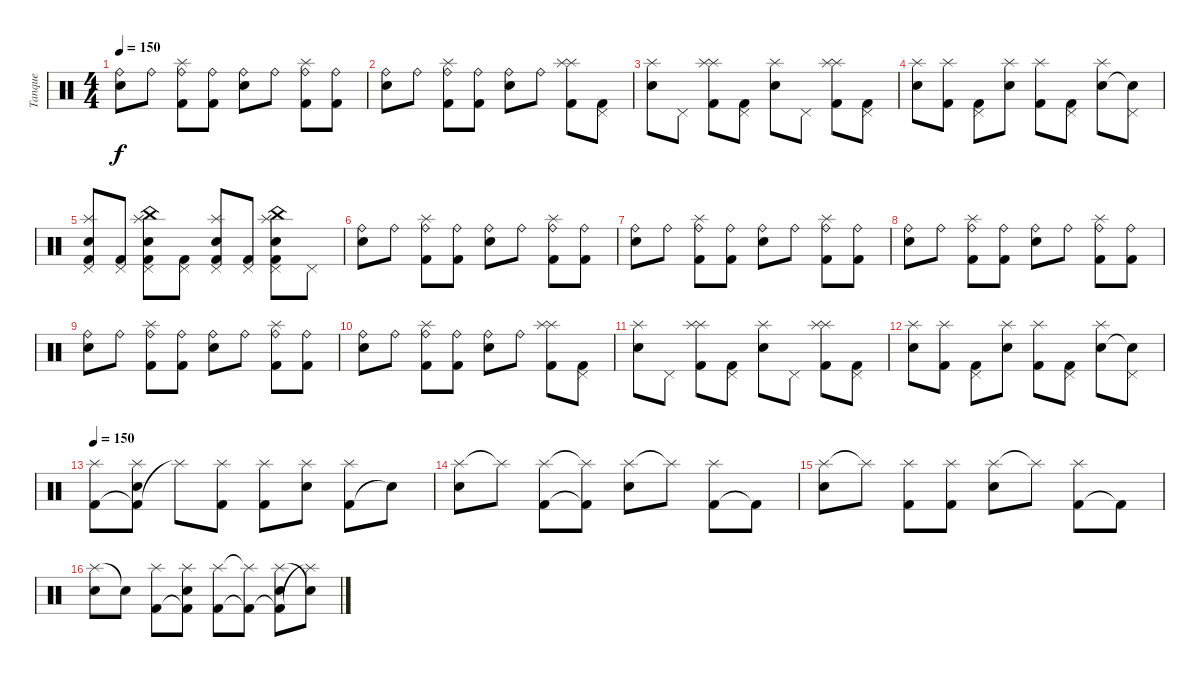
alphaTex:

\track ("Tanque" "Tanque") {instrument percussion}
\staff {score}
\articulation defaults
\ts (4 4)
\tempo 150
\clef neutral
\ks c
("Ride (bell)" "Snare (hit) 2").8{dy f} "Ride (bell)".8 ("Ride (bell)" "Kick (hit) 2" "Splash (hit)").8 ("Ride (bell)" "Kick (hit) 2").8 ("Ride (bell)" "Snare (hit) 2").8 "Ride (bell)".8 ("Ride (bell)" "Kick (hit) 2" "Splash (hit)").8 ("Ride (bell)" "Kick (hit) 2").8 |
("Ride (bell)" "Snare (hit) 2").8 "Ride (bell)".8 ("Ride (bell)" "Kick (hit) 2" "Splash (hit)").8 ("Ride (bell)" "Kick (hit) 2").8 ("Ride (bell)" "Snare (hit) 2").8 "Ride (bell)".8 ("Splash (hit)" "Kick (hit) 2" "Splash (hit)").8 ("Pedal Hi-Hat (hit)" "Kick (hit) 2").8 |
("Splash (hit)" "Snare (hit) 2").8 "Pedal Hi-Hat (hit)".8 ("Splash (hit)" "Kick (hit) 2" "Splash (hit)").8 ("Pedal Hi-Hat (hit)" "Kick (hit) 2").8 ("Splash (hit)" "Snare (hit) 2").8 "Pedal Hi-Hat (hit)".8 ("Splash (hit)" "Kick (hit) 2" "Splash (hit)").8 ("Pedal Hi-Hat (hit)" "Kick (hit) 2").8 |
("Splash (hit)" "Snare (hit) 2").8 ("Splash (hit)" "Kick (hit) 2").8 ("Pedal Hi-Hat (hit)" "Kick (hit) 2").8 ("Splash (hit)" "Snare (hit) 2").8 ("Splash (hit)" "Kick (hit) 2").8 ("Pedal Hi-Hat (hit)" "Kick (hit) 2").8 ("Splash (hit)" "Snare (hit) 2").8 ("Pedal Hi-Hat (hit)" "Snare (hit) 2"{t}).8 |
("Pedal Hi-Hat (hit)" "Kick (hit) 2" "Snare (hit) 2" "Splash (hit)").8 ("Pedal Hi-Hat (hit)" "Kick (hit) 2").8 ("Pedal Hi-Hat (hit)" "Kick (hit) 2" "Snare (hit) 2" "Splash (hit)" "China (hit)").8 ("Pedal Hi-Hat (hit)" "Kick (hit) 2").8 ("Pedal Hi-Hat (hit)" "Kick (hit) 2" "Snare (hit) 2" "Splash (hit)").8 ("Pedal Hi-Hat (hit)" "Kick (hit) 2").8 ("Pedal Hi-Hat (hit)" "Kick (hit) 2" "Snare (hit) 2" "Splash (hit)" "China (hit)").8 "Pedal Hi-Hat (hit)".8 |
("Ride (bell)" "Snare (hit) 2").8 "Ride (bell)".8 ("Ride (bell)" "Kick (hit) 2" "Splash (hit)").8 ("Ride (bell)" "Kick (hit) 2").8 ("Ride (bell)" "Snare (hit) 2").8 "Ride (bell)".8 ("Ride (bell)" "Kick (hit) 2" "Splash (hit)").8 ("Ride (bell)" "Kick (hit) 2").8 |
("Ride (bell)" "Snare (hit) 2").8 "Ride (bell)".8 ("Ride (bell)" "Kick (hit) 2" "Splash (hit)").8 ("Ride (bell)" "Kick (hit) 2").8 ("Ride (bell)" "Snare (hit) 2").8 "Ride (bell)".8 ("Ride (bell)" "Kick (hit) 2" "Splash (hit)").8 ("Ride (bell)" "Kick (hit) 2").8 |
("Ride (bell)" "Snare (hit) 2").8 "Ride (bell)".8 ("Ride (bell)" "Kick (hit) 2" "Splash (hit)").8 ("Ride (bell)" "Kick (hit) 2").8 ("Ride (bell)" "Snare (hit) 2").8 "Ride (bell)".8 ("Ride (bell)" "Kick (hit) 2" "Splash (hit)").8 ("Ride (bell)" "Kick (hit) 2").8 |
("Ride (bell)" "Snare (hit) 2").8 "Ride (bell)".8 ("Ride (bell)" "Kick (hit) 2" "Splash (hit)").8 ("Ride (bell)" "Kick (hit) 2").8 ("Ride (bell)" "Snare (hit) 2").8 "Ride (bell)".8 ("Ride (bell)" "Kick (hit) 2" "Splash (hit)").8 ("Ride (bell)" "Kick (hit) 2").8 |
("Ride (bell)" "Snare (hit) 2").8 "Ride (bell)".8 ("Ride (bell)" "Kick (hit) 2" "Splash (hit)").8 ("Ride (bell)" "Kick (hit) 2").8 ("Ride (bell)" "Snare (hit) 2").8 "Ride (bell)".8 ("Splash (hit)" "Kick (hit) 2" "Splash (hit)").8 ("Pedal Hi-Hat (hit)" "Kick (hit) 2").8 |
("Splash (hit)" "Snare (hit) 2").8 "Pedal Hi-Hat (hit)".8 ("Splash (hit)" "Kick (hit) 2" "Splash (hit)").8 ("Pedal Hi-Hat (hit)" "Kick (hit) 2").8 ("Splash (hit)" "Snare (hit) 2").8 "Pedal Hi-Hat (hit)".8 ("Splash (hit)" "Kick (hit) 2" "Splash (hit)").8 ("Pedal Hi-Hat (hit)" "Kick (hit) 2").8 |
("Splash (hit)" "Snare (hit) 2").8 ("Splash (hit)" "Kick (hit) 2").8 ("Pedal Hi-Hat (hit)" "Kick (hit) 2").8 ("Splash (hit)" "Snare (hit) 2").8 ("Splash (hit)" "Kick (hit) 2").8 ("Pedal Hi-Hat (hit)" "Kick (hit) 2").8 ("Splash (hit)" "Snare (hit) 2").8 ("Pedal Hi-Hat (hit)" "Snare (hit) 2"{t}).8 |
\tempo 150
("Kick (hit) 2" "Splash (hit)").8 ("Kick (hit) 2"{t} "Splash (hit)" "Snare (hit) 2").8 "Splash (hit)"{t}.8 ("Kick (hit) 2" "Splash (hit)").8 ("Kick (hit) 2" "Splash (hit)").8 ("Splash (hit)" "Snare (hit) 2").8 ("Kick (hit) 2" "Splash (hit)").8 "Snare (hit)"{t}.8 |
("Splash (hit)" "Snare (hit) 2").8 "Splash (hit)"{t}.8 ("Kick (hit) 2" "Splash (hit)").8 ("Kick (hit) 2"{t} "Splash (hit)"{t}).8 ("Splash (hit)" "Snare (hit) 2").8 "Splash (hit)"{t}.8 ("Kick (hit) 2" "Splash (hit)").8 "Kick (hit) 2"{t}.8 |
("Splash (hit)" "Snare (hit) 2").8 "Splash (hit)"{t}.8 ("Kick (hit) 2" "Splash (hit)").8 ("Kick (hit) 2" "Splash (hit)").8 ("Splash (hit)" "Snare (hit) 2").8 "Splash (hit)"{t}.8 ("Kick (hit) 2" "Splash (hit)").8 "Kick (hit) 2"{t}.8 |
("Splash (hit)" "Snare (hit) 2").8 "Snare (hit)"{t}.8 ("Kick (hit) 2" "Splash (hit)").8 ("Kick (hit) 2"{t} "Splash (hit)" "Snare (hit) 2").8 ("Kick (hit) 2" "Splash (hit)").8 ("Kick (hit) 2"{t} "Splash (hit)"{t}).8 ("Kick (hit) 2"{t} "Splash (hit)" "Snare (hit) 2").8 ("Splash (hit)"{t} "Snare (hit) 2"{t}).8
